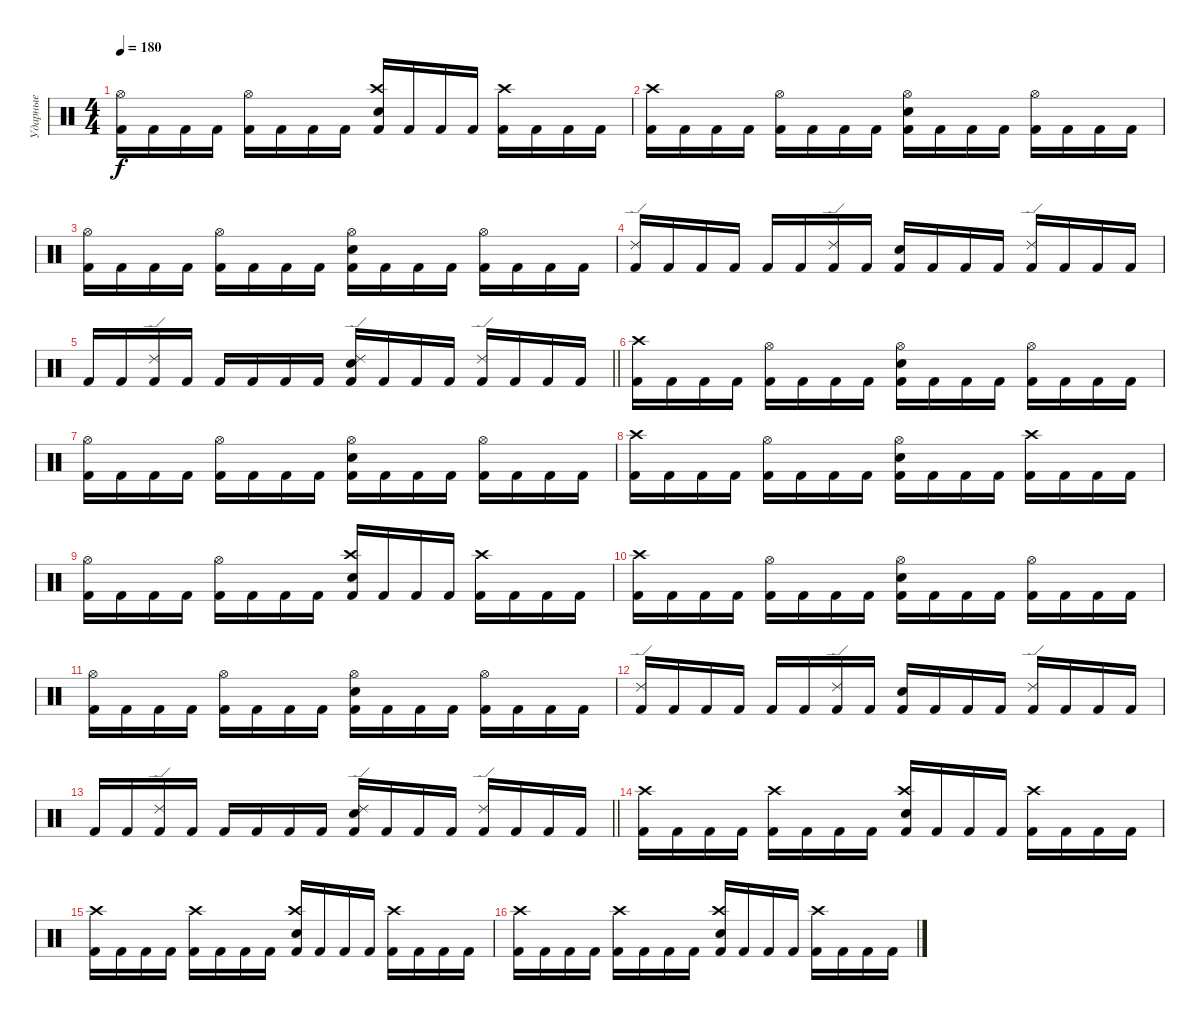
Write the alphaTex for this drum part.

\track ("Ударные" "Ударные") {instrument percussion}
\staff {score}
\articulation defaults
\ts (4 4)
\tempo 180
\clef neutral
\ks c
("Hi-Hat (open)" "Kick (hit) 2").16{dy f} "Kick (hit) 2".16 "Kick (hit) 2".16 "Kick (hit) 2".16 ("Hi-Hat (open)" "Kick (hit) 2").16 "Kick (hit) 2".16 "Kick (hit) 2".16 "Kick (hit) 2".16 ("Crash high (hit)" "Electric Snare (hit)" "Kick (hit) 2").16 "Kick (hit) 2".16 "Kick (hit) 2".16 "Kick (hit) 2".16 ("Crash high (hit)" "Kick (hit) 2").16 "Kick (hit) 2".16 "Kick (hit) 2".16 "Kick (hit) 2".16 |
("Crash high (hit)" "Kick (hit) 2").16 "Kick (hit) 2".16 "Kick (hit) 2".16 "Kick (hit) 2".16 ("Hi-Hat (open)" "Kick (hit) 2").16 "Kick (hit) 2".16 "Kick (hit) 2".16 "Kick (hit) 2".16 ("Hi-Hat (open)" "Electric Snare (hit)" "Kick (hit) 2").16 "Kick (hit) 2".16 "Kick (hit) 2".16 "Kick (hit) 2".16 ("Hi-Hat (open)" "Kick (hit) 2").16 "Kick (hit) 2".16 "Kick (hit) 2".16 "Kick (hit) 2".16 |
("Hi-Hat (open)" "Kick (hit) 2").16 "Kick (hit) 2".16 "Kick (hit) 2".16 "Kick (hit) 2".16 ("Hi-Hat (open)" "Kick (hit) 2").16 "Kick (hit) 2".16 "Kick (hit) 2".16 "Kick (hit) 2".16 ("Hi-Hat (open)" "Electric Snare (hit)" "Kick (hit) 2").16 "Kick (hit) 2".16 "Kick (hit) 2".16 "Kick (hit) 2".16 ("Hi-Hat (open)" "Kick (hit) 2").16 "Kick (hit) 2".16 "Kick (hit) 2".16 "Kick (hit) 2".16 |
("Ride (edge) 2" "Kick (hit) 2").16 "Kick (hit) 2".16 "Kick (hit) 2".16 "Kick (hit) 2".16 "Kick (hit) 2".16 "Kick (hit) 2".16 ("Ride (edge) 2" "Kick (hit) 2").16 "Kick (hit) 2".16 ("Electric Snare (hit)" "Kick (hit) 2").16 "Kick (hit) 2".16 "Kick (hit) 2".16 "Kick (hit) 2".16 ("Ride (edge) 2" "Kick (hit) 2").16 "Kick (hit) 2".16 "Kick (hit) 2".16 "Kick (hit) 2".16 |
\barLineRight lightlight "Kick (hit) 2".16 "Kick (hit) 2".16
("Ride (edge) 2" "Kick (hit) 2").16 "Kick (hit) 2".16 "Kick (hit) 2".16 "Kick (hit) 2".16 "Kick (hit) 2".16 "Kick (hit) 2".16 ("Ride (edge) 2" "Electric Snare (hit)" "Kick (hit) 2").16 "Kick (hit) 2".16 "Kick (hit) 2".16 "Kick (hit) 2".16 ("Ride (edge) 2" "Kick (hit) 2").16 "Kick (hit) 2".16 "Kick (hit) 2".16 "Kick (hit) 2".16 |
("Crash high (hit)" "Kick (hit) 2").16 "Kick (hit) 2".16 "Kick (hit) 2".16 "Kick (hit) 2".16 ("Hi-Hat (open)" "Kick (hit) 2").16 "Kick (hit) 2".16 "Kick (hit) 2".16 "Kick (hit) 2".16 ("Hi-Hat (open)" "Electric Snare (hit)" "Kick (hit) 2").16 "Kick (hit) 2".16 "Kick (hit) 2".16 "Kick (hit) 2".16 ("Hi-Hat (open)" "Kick (hit) 2").16 "Kick (hit) 2".16 "Kick (hit) 2".16 "Kick (hit) 2".16 |
("Hi-Hat (open)" "Kick (hit) 2").16 "Kick (hit) 2".16 "Kick (hit) 2".16 "Kick (hit) 2".16 ("Hi-Hat (open)" "Kick (hit) 2").16 "Kick (hit) 2".16 "Kick (hit) 2".16 "Kick (hit) 2".16 ("Hi-Hat (open)" "Electric Snare (hit)" "Kick (hit) 2").16 "Kick (hit) 2".16 "Kick (hit) 2".16 "Kick (hit) 2".16 ("Hi-Hat (open)" "Kick (hit) 2").16 "Kick (hit) 2".16 "Kick (hit) 2".16 "Kick (hit) 2".16 |
("Crash high (hit)" "Kick (hit) 2").16 "Kick (hit) 2".16 "Kick (hit) 2".16 "Kick (hit) 2".16 ("Hi-Hat (open)" "Kick (hit) 2").16 "Kick (hit) 2".16 "Kick (hit) 2".16 "Kick (hit) 2".16 ("Hi-Hat (open)" "Electric Snare (hit)" "Kick (hit) 2").16 "Kick (hit) 2".16 "Kick (hit) 2".16 "Kick (hit) 2".16 ("Crash high (hit)" "Kick (hit) 2").16 "Kick (hit) 2".16 "Kick (hit) 2".16 "Kick (hit) 2".16 |
("Hi-Hat (open)" "Kick (hit) 2").16 "Kick (hit) 2".16 "Kick (hit) 2".16 "Kick (hit) 2".16 ("Hi-Hat (open)" "Kick (hit) 2").16 "Kick (hit) 2".16 "Kick (hit) 2".16 "Kick (hit) 2".16 ("Crash high (hit)" "Electric Snare (hit)" "Kick (hit) 2").16 "Kick (hit) 2".16 "Kick (hit) 2".16 "Kick (hit) 2".16 ("Crash high (hit)" "Kick (hit) 2").16 "Kick (hit) 2".16 "Kick (hit) 2".16 "Kick (hit) 2".16 |
("Crash high (hit)" "Kick (hit) 2").16 "Kick (hit) 2".16 "Kick (hit) 2".16 "Kick (hit) 2".16 ("Hi-Hat (open)" "Kick (hit) 2").16 "Kick (hit) 2".16 "Kick (hit) 2".16 "Kick (hit) 2".16 ("Hi-Hat (open)" "Electric Snare (hit)" "Kick (hit) 2").16 "Kick (hit) 2".16 "Kick (hit) 2".16 "Kick (hit) 2".16 ("Hi-Hat (open)" "Kick (hit) 2").16 "Kick (hit) 2".16 "Kick (hit) 2".16 "Kick (hit) 2".16 |
("Hi-Hat (open)" "Kick (hit) 2").16 "Kick (hit) 2".16 "Kick (hit) 2".16 "Kick (hit) 2".16 ("Hi-Hat (open)" "Kick (hit) 2").16 "Kick (hit) 2".16 "Kick (hit) 2".16 "Kick (hit) 2".16 ("Hi-Hat (open)" "Electric Snare (hit)" "Kick (hit) 2").16 "Kick (hit) 2".16 "Kick (hit) 2".16 "Kick (hit) 2".16 ("Hi-Hat (open)" "Kick (hit) 2").16 "Kick (hit) 2".16 "Kick (hit) 2".16 "Kick (hit) 2".16 |
("Ride (edge) 2" "Kick (hit) 2").16 "Kick (hit) 2".16 "Kick (hit) 2".16 "Kick (hit) 2".16 "Kick (hit) 2".16 "Kick (hit) 2".16 ("Ride (edge) 2" "Kick (hit) 2").16 "Kick (hit) 2".16 ("Electric Snare (hit)" "Kick (hit) 2").16 "Kick (hit) 2".16 "Kick (hit) 2".16 "Kick (hit) 2".16 ("Ride (edge) 2" "Kick (hit) 2").16 "Kick (hit) 2".16 "Kick (hit) 2".16 "Kick (hit) 2".16 |
\barLineRight lightlight "Kick (hit) 2".16 "Kick (hit) 2".16
("Ride (edge) 2" "Kick (hit) 2").16 "Kick (hit) 2".16 "Kick (hit) 2".16 "Kick (hit) 2".16 "Kick (hit) 2".16 "Kick (hit) 2".16 ("Ride (edge) 2" "Electric Snare (hit)" "Kick (hit) 2").16 "Kick (hit) 2".16 "Kick (hit) 2".16 "Kick (hit) 2".16 ("Ride (edge) 2" "Kick (hit) 2").16 "Kick (hit) 2".16 "Kick (hit) 2".16 "Kick (hit) 2".16 |
\section ("" "")
("Crash high (hit)" "Kick (hit) 2").16 "Kick (hit) 2".16 "Kick (hit) 2".16 "Kick (hit) 2".16 ("Crash high (hit)" "Kick (hit) 2").16 "Kick (hit) 2".16 "Kick (hit) 2".16 "Kick (hit) 2".16 ("Crash high (hit)" "Electric Snare (hit)" "Kick (hit) 2").16 "Kick (hit) 2".16 "Kick (hit) 2".16 "Kick (hit) 2".16 ("Crash high (hit)" "Kick (hit) 2").16 "Kick (hit) 2".16 "Kick (hit) 2".16 "Kick (hit) 2".16 |
("Crash high (hit)" "Kick (hit) 2").16 "Kick (hit) 2".16 "Kick (hit) 2".16 "Kick (hit) 2".16 ("Crash high (hit)" "Kick (hit) 2").16 "Kick (hit) 2".16 "Kick (hit) 2".16 "Kick (hit) 2".16 ("Crash high (hit)" "Electric Snare (hit)" "Kick (hit) 2").16 "Kick (hit) 2".16 "Kick (hit) 2".16 "Kick (hit) 2".16 ("Crash high (hit)" "Kick (hit) 2").16 "Kick (hit) 2".16 "Kick (hit) 2".16 "Kick (hit) 2".16 |
("Crash high (hit)" "Kick (hit) 2").16 "Kick (hit) 2".16 "Kick (hit) 2".16 "Kick (hit) 2".16 ("Crash high (hit)" "Kick (hit) 2").16 "Kick (hit) 2".16 "Kick (hit) 2".16 "Kick (hit) 2".16 ("Crash high (hit)" "Electric Snare (hit)" "Kick (hit) 2").16 "Kick (hit) 2".16 "Kick (hit) 2".16 "Kick (hit) 2".16 ("Crash high (hit)" "Kick (hit) 2").16 "Kick (hit) 2".16 "Kick (hit) 2".16 "Kick (hit) 2".16
